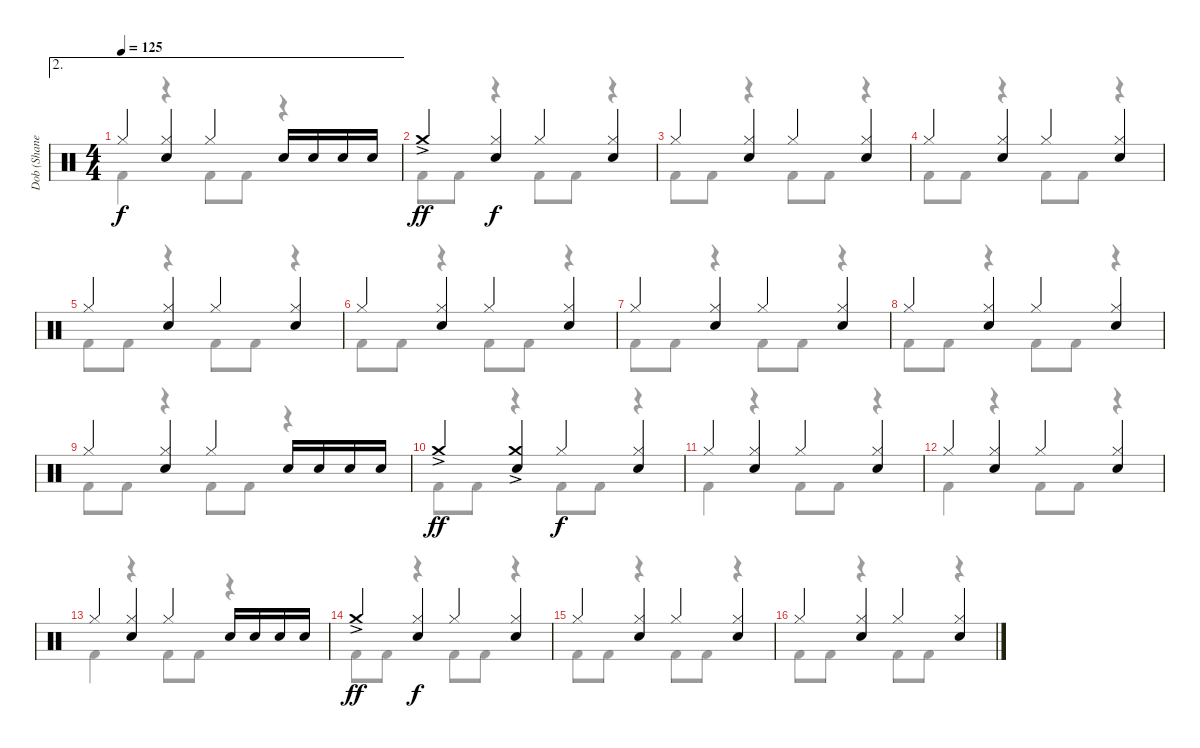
\track ("Dob (Shane Gaalaas)" "Dob (Shane") {instrument percussion}
\staff {score}
\articulation defaults
\voice
\ae 2
\ts (4 4)
\tempo 125
\clef neutral
\ks c "Hi-Hat (closed)".4{dy f}
("Hi-Hat (closed)" "Electric Snare (hit)").4 "Hi-Hat (closed)".4 "Electric Snare (hit)".16 "Electric Snare (hit)".16 "Electric Snare (hit)".16 "Electric Snare (hit)".16 |
"Crash medium (hit)"{ac}.4{dy ff} ("Hi-Hat (closed)" "Electric Snare (hit)").4{dy f} "Hi-Hat (closed)".4 ("Hi-Hat (closed)" "Electric Snare (hit)").4 |
"Hi-Hat (closed)".4 ("Hi-Hat (closed)" "Electric Snare (hit)").4 "Hi-Hat (closed)".4 ("Hi-Hat (closed)" "Electric Snare (hit)").4 |
"Hi-Hat (closed)".4 ("Hi-Hat (closed)" "Electric Snare (hit)").4 "Hi-Hat (closed)".4 ("Hi-Hat (closed)" "Electric Snare (hit)").4 |
"Hi-Hat (closed)".4 ("Hi-Hat (closed)" "Electric Snare (hit)").4 "Hi-Hat (closed)".4 ("Hi-Hat (closed)" "Electric Snare (hit)").4 |
"Hi-Hat (closed)".4 ("Hi-Hat (closed)" "Electric Snare (hit)").4 "Hi-Hat (closed)".4 ("Hi-Hat (closed)" "Electric Snare (hit)").4 |
"Hi-Hat (closed)".4 ("Hi-Hat (closed)" "Electric Snare (hit)").4 "Hi-Hat (closed)".4 ("Hi-Hat (closed)" "Electric Snare (hit)").4 |
"Hi-Hat (closed)".4 ("Hi-Hat (closed)" "Electric Snare (hit)").4 "Hi-Hat (closed)".4 ("Hi-Hat (closed)" "Electric Snare (hit)").4 |
"Hi-Hat (closed)".4 ("Hi-Hat (closed)" "Electric Snare (hit)").4 "Hi-Hat (closed)".4 "Electric Snare (hit)".16 "Electric Snare (hit)".16 "Electric Snare (hit)".16 "Electric Snare (hit)".16 |
"Crash medium (hit)"{ac}.4{dy ff} ("Crash medium (hit)"{ac} "Electric Snare (hit)").4 "Hi-Hat (closed)".4{dy f} ("Hi-Hat (closed)" "Electric Snare (hit)").4 |
"Hi-Hat (closed)".4 ("Hi-Hat (closed)" "Electric Snare (hit)").4 "Hi-Hat (closed)".4 ("Hi-Hat (closed)" "Electric Snare (hit)").4 |
"Hi-Hat (closed)".4 ("Hi-Hat (closed)" "Electric Snare (hit)").4 "Hi-Hat (closed)".4 ("Hi-Hat (closed)" "Electric Snare (hit)").4 |
"Hi-Hat (closed)".4 ("Hi-Hat (closed)" "Electric Snare (hit)").4 "Hi-Hat (closed)".4 "Electric Snare (hit)".16 "Electric Snare (hit)".16 "Electric Snare (hit)".16 "Electric Snare (hit)".16 |
"Crash medium (hit)"{ac}.4{dy ff} ("Hi-Hat (closed)" "Electric Snare (hit)").4{dy f} "Hi-Hat (closed)".4 ("Hi-Hat (closed)" "Electric Snare (hit)").4 |
"Hi-Hat (closed)".4 ("Hi-Hat (closed)" "Electric Snare (hit)").4 "Hi-Hat (closed)".4 ("Hi-Hat (closed)" "Electric Snare (hit)").4 |
"Hi-Hat (closed)".4 ("Hi-Hat (closed)" "Electric Snare (hit)").4 "Hi-Hat (closed)".4 ("Hi-Hat (closed)" "Electric Snare (hit)").4
\voice
\clef neutral
\ottava regular
\simile none
\ks c "Kick (hit) 2".4{dy f}
r.4 "Kick (hit) 2".8 "Kick (hit) 2".8 r.4 |
"Kick (hit) 2".8 "Kick (hit) 2".8 r.4 "Kick (hit) 2".8 "Kick (hit) 2".8 r.4 |
"Kick (hit) 2".8 "Kick (hit) 2".8 r.4 "Kick (hit) 2".8 "Kick (hit) 2".8 r.4 |
"Kick (hit) 2".8 "Kick (hit) 2".8 r.4 "Kick (hit) 2".8 "Kick (hit) 2".8 r.4 |
"Kick (hit) 2".8 "Kick (hit) 2".8 r.4 "Kick (hit) 2".8 "Kick (hit) 2".8 r.4 |
"Kick (hit) 2".8 "Kick (hit) 2".8 r.4 "Kick (hit) 2".8 "Kick (hit) 2".8 r.4 |
"Kick (hit) 2".8 "Kick (hit) 2".8 r.4 "Kick (hit) 2".8 "Kick (hit) 2".8 r.4 |
"Kick (hit) 2".8 "Kick (hit) 2".8 r.4 "Kick (hit) 2".8 "Kick (hit) 2".8 r.4 |
"Kick (hit) 2".8 "Kick (hit) 2".8 r.4 "Kick (hit) 2".8 "Kick (hit) 2".8 r.4 |
"Kick (hit) 2".8 "Kick (hit) 2".8 r.4 "Kick (hit) 2".8 "Kick (hit) 2".8 r.4 |
"Kick (hit) 2".4 r.4 "Kick (hit) 2".8 "Kick (hit) 2".8 r.4 |
"Kick (hit) 2".4 r.4 "Kick (hit) 2".8 "Kick (hit) 2".8 r.4 |
"Kick (hit) 2".4 r.4 "Kick (hit) 2".8 "Kick (hit) 2".8 r.4 |
"Kick (hit) 2".8 "Kick (hit) 2".8 r.4 "Kick (hit) 2".8 "Kick (hit) 2".8 r.4 |
"Kick (hit) 2".8 "Kick (hit) 2".8 r.4 "Kick (hit) 2".8 "Kick (hit) 2".8 r.4 |
"Kick (hit) 2".8 "Kick (hit) 2".8 r.4 "Kick (hit) 2".8 "Kick (hit) 2".8 r.4
